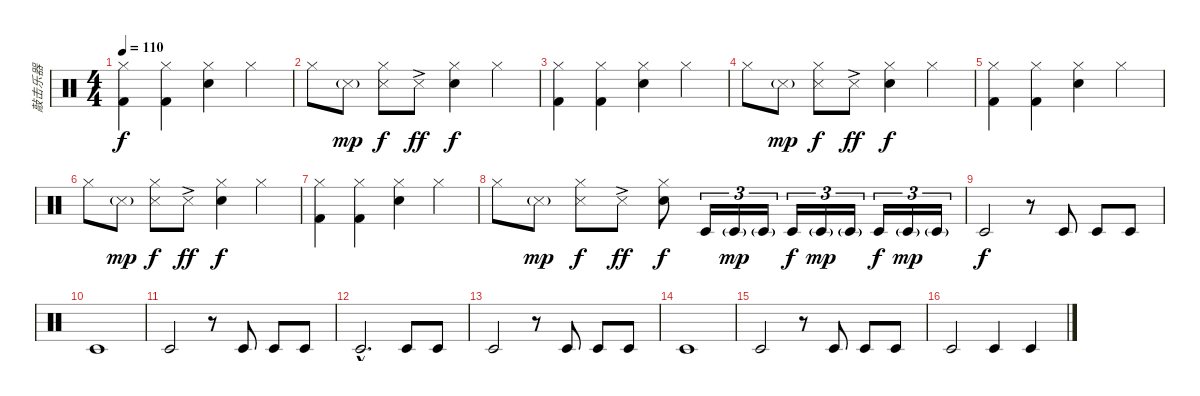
\track ("敲击乐器" "敲击乐器") {instrument percussion}
\staff {score}
\articulation defaults
\ts (4 4)
\tempo 110
\clef neutral
\ks c
("Kick (hit) 2" "Hi-Hat (closed)").4{dy f} ("Kick (hit) 2" "Hi-Hat (closed)").4 ("Snare (hit) 2" "Hi-Hat (closed)").4 "Hi-Hat (closed)".4 |
"Hi-Hat (closed)".8 "Metronome (hit)"{g}.8{dy mp} ("Metronome (hit)" "Hi-Hat (closed)").8{dy f} "Metronome (hit)"{ac}.8{dy ff} ("Snare (hit) 2" "Hi-Hat (closed)").4{dy f} "Hi-Hat (closed)".4 |
("Kick (hit) 2" "Hi-Hat (closed)").4 ("Kick (hit) 2" "Hi-Hat (closed)").4 ("Snare (hit) 2" "Hi-Hat (closed)").4 "Hi-Hat (closed)".4 |
"Hi-Hat (closed)".8 "Metronome (hit)"{g}.8{dy mp} ("Metronome (hit)" "Hi-Hat (closed)").8{dy f} "Metronome (hit)"{ac}.8{dy ff} ("Snare (hit) 2" "Hi-Hat (closed)").4{dy f} "Hi-Hat (closed)".4 |
("Kick (hit) 2" "Hi-Hat (closed)").4 ("Kick (hit) 2" "Hi-Hat (closed)").4 ("Snare (hit) 2" "Hi-Hat (closed)").4 "Hi-Hat (closed)".4 |
"Hi-Hat (closed)".8 "Metronome (hit)"{g}.8{dy mp} ("Metronome (hit)" "Hi-Hat (closed)").8{dy f} "Metronome (hit)"{ac}.8{dy ff} ("Snare (hit) 2" "Hi-Hat (closed)").4{dy f} "Hi-Hat (closed)".4 |
("Kick (hit) 2" "Hi-Hat (closed)").4 ("Kick (hit) 2" "Hi-Hat (closed)").4 ("Snare (hit) 2" "Hi-Hat (closed)").4 "Hi-Hat (closed)".4 |
"Hi-Hat (closed)".8 "Metronome (hit)"{g}.8{dy mp} ("Metronome (hit)" "Hi-Hat (closed)").8{dy f} "Metronome (hit)"{ac}.8{dy ff} ("Snare (hit) 2" "Hi-Hat (closed)").8{dy f} "Timbale low (hit)".16{tu (3 2)} "Timbale low (hit)"{g}.16{tu (3 2) dy mp} "Timbale low (hit)"{g}.16{tu (3 2)} "Timbale low (hit)".16{tu (3 2) dy f} "Timbale low (hit)"{g}.16{tu (3 2) dy mp} "Timbale low (hit)"{g}.16{tu (3 2)} "Timbale low (hit)".16{tu (3 2) dy f} "Timbale low (hit)"{g}.16{tu (3 2) dy mp} "Timbale low (hit)"{g}.16{tu (3 2)} |
"Timbale low (hit)".2{dy f} r.8 "Timbale low (hit)".8 "Timbale low (hit)".8 "Timbale low (hit)".8 |
"Timbale low (hit)".1 |
"Timbale low (hit)".2 r.8 "Timbale low (hit)".8 "Timbale low (hit)".8 "Timbale low (hit)".8 |
"Timbale low (hit)"{hac}.2{d} "Timbale low (hit)".8 "Timbale low (hit)".8 |
"Timbale low (hit)".2 r.8 "Timbale low (hit)".8 "Timbale low (hit)".8 "Timbale low (hit)".8 |
"Timbale low (hit)".1 |
"Timbale low (hit)".2 r.8 "Timbale low (hit)".8 "Timbale low (hit)".8 "Timbale low (hit)".8 |
"Timbale low (hit)".2 "Timbale low (hit)".4 "Timbale low (hit)".4
